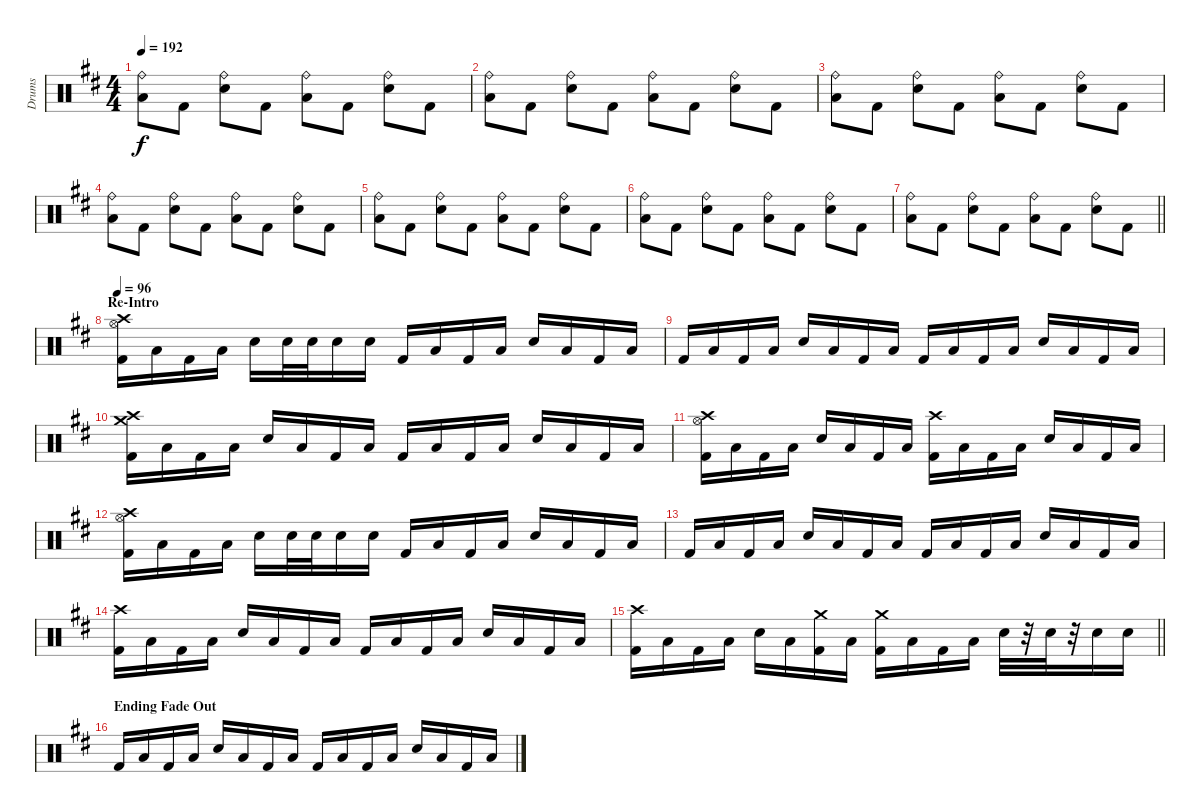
\track ("Drums" "Drums") {instrument percussion}
\staff {score}
\articulation defaults
\ts (4 4)
\tempo 192
\clef neutral
\ks d
("Ride (bell)" "Low Tom (hit)").8{dy f} "Kick (hit) 2".8 ("Ride (bell)" "Snare (hit) 2").8 "Kick (hit) 2".8 ("Ride (bell)" "Low Tom (hit)").8 "Kick (hit) 2".8 ("Ride (bell)" "Snare (hit) 2").8 "Kick (hit) 2".8 |
("Ride (bell)" "Low Tom (hit)").8 "Kick (hit) 2".8 ("Ride (bell)" "Snare (hit) 2").8 "Kick (hit) 2".8 ("Ride (bell)" "Low Tom (hit)").8 "Kick (hit) 2".8 ("Ride (bell)" "Snare (hit) 2").8 "Kick (hit) 2".8 |
("Ride (bell)" "Low Tom (hit)").8 "Kick (hit) 2".8 ("Ride (bell)" "Snare (hit) 2").8 "Kick (hit) 2".8 ("Ride (bell)" "Low Tom (hit)").8 "Kick (hit) 2".8 ("Ride (bell)" "Snare (hit) 2").8 "Kick (hit) 2".8 |
("Ride (bell)" "Low Tom (hit)").8 "Kick (hit) 2".8 ("Ride (bell)" "Snare (hit) 2").8 "Kick (hit) 2".8 ("Ride (bell)" "Low Tom (hit)").8 "Kick (hit) 2".8 ("Ride (bell)" "Snare (hit) 2").8 "Kick (hit) 2".8 |
("Ride (bell)" "Low Tom (hit)").8 "Kick (hit) 2".8 ("Ride (bell)" "Snare (hit) 2").8 "Kick (hit) 2".8 ("Ride (bell)" "Low Tom (hit)").8 "Kick (hit) 2".8 ("Ride (bell)" "Snare (hit) 2").8 "Kick (hit) 2".8 |
("Ride (bell)" "Low Tom (hit)").8 "Kick (hit) 2".8 ("Ride (bell)" "Snare (hit) 2").8 "Kick (hit) 2".8 ("Ride (bell)" "Low Tom (hit)").8 "Kick (hit) 2".8 ("Ride (bell)" "Snare (hit) 2").8 "Kick (hit) 2".8 |
\barLineRight lightlight
("Ride (bell)" "Low Tom (hit)").8 "Kick (hit) 2".8 ("Ride (bell)" "Snare (hit) 2").8 "Kick (hit) 2".8 ("Ride (bell)" "Low Tom (hit)").8 "Kick (hit) 2".8 ("Ride (bell)" "Snare (hit) 2").8 "Kick (hit) 2".8 |
\section ("" "Re-Intro")
\tempo 96
("Crash high (hit)" "Hi-Hat (open)" "Kick (hit) 2").16 "Low Tom (hit)".16 "Kick (hit) 2".16 "Low Tom (hit)".16 "Snare (hit) 2".16 "Electric Snare (hit)".32 "Electric Snare (hit)".32 "Electric Snare (hit)".16 "Snare (hit) 2".16 "Kick (hit) 2".16 "Low Tom (hit)".16 "Kick (hit) 2".16 "Low Tom (hit)".16 "Snare (hit) 2".16 "Low Tom (hit)".16 "Kick (hit) 2".16 "Low Tom (hit)".16 |
"Kick (hit) 2".16 "Low Tom (hit)".16 "Kick (hit) 2".16 "Low Tom (hit)".16 "Snare (hit) 2".16 "Low Tom (hit)".16 "Kick (hit) 2".16 "Low Tom (hit)".16 "Kick (hit) 2".16 "Low Tom (hit)".16 "Kick (hit) 2".16 "Low Tom (hit)".16 "Snare (hit) 2".16 "Low Tom (hit)".16 "Kick (hit) 2".16 "Low Tom (hit)".16 |
("Crash high (hit)" "Crash medium (hit)" "Kick (hit) 2").16 "Low Tom (hit)".16 "Kick (hit) 2".16 "Low Tom (hit)".16 "Snare (hit) 2".16 "Low Tom (hit)".16 "Kick (hit) 2".16 "Low Tom (hit)".16 "Kick (hit) 2".16 "Low Tom (hit)".16 "Kick (hit) 2".16 "Low Tom (hit)".16 "Snare (hit) 2".16 "Low Tom (hit)".16 "Kick (hit) 2".16 "Low Tom (hit)".16 |
("Crash high (hit)" "Hi-Hat (open)" "Kick (hit) 2").16 "Low Tom (hit)".16 "Kick (hit) 2".16 "Low Tom (hit)".16 "Snare (hit) 2".16 "Low Tom (hit)".16 "Kick (hit) 2".16 "Low Tom (hit)".16 ("Crash high (hit)" "Kick (hit) 2").16 "Low Tom (hit)".16 "Kick (hit) 2".16 "Low Tom (hit)".16 "Snare (hit) 2".16 "Low Tom (hit)".16 "Kick (hit) 2".16 "Low Tom (hit)".16 |
("Crash high (hit)" "Hi-Hat (open)" "Kick (hit) 2").16 "Low Tom (hit)".16 "Kick (hit) 2".16 "Low Tom (hit)".16 "Snare (hit) 2".16 "Electric Snare (hit)".32 "Electric Snare (hit)".32 "Electric Snare (hit)".16 "Snare (hit) 2".16 "Kick (hit) 2".16 "Low Tom (hit)".16 "Kick (hit) 2".16 "Low Tom (hit)".16 "Snare (hit) 2".16 "Low Tom (hit)".16 "Kick (hit) 2".16 "Low Tom (hit)".16 |
"Kick (hit) 2".16 "Low Tom (hit)".16 "Kick (hit) 2".16 "Low Tom (hit)".16 "Snare (hit) 2".16 "Low Tom (hit)".16 "Kick (hit) 2".16 "Low Tom (hit)".16 "Kick (hit) 2".16 "Low Tom (hit)".16 "Kick (hit) 2".16 "Low Tom (hit)".16 "Snare (hit) 2".16 "Low Tom (hit)".16 "Kick (hit) 2".16 "Low Tom (hit)".16 |
("Crash high (hit)" "Kick (hit) 2").16 "Low Tom (hit)".16 "Kick (hit) 2".16 "Low Tom (hit)".16 "Snare (hit) 2".16 "Low Tom (hit)".16 "Kick (hit) 2".16 "Low Tom (hit)".16 "Kick (hit) 2".16 "Low Tom (hit)".16 "Kick (hit) 2".16 "Low Tom (hit)".16 "Snare (hit) 2".16 "Low Tom (hit)".16 "Kick (hit) 2".16 "Low Tom (hit)".16 |
\barLineRight lightlight
("Crash high (hit)" "Kick (hit) 2").16 "Low Tom (hit)".16 "Kick (hit) 2".16 "Low Tom (hit)".16 "Snare (hit) 2".16 "Low Tom (hit)".16 ("Crash medium (hit)" "Kick (hit) 2").16 "Low Tom (hit)".16 ("Crash medium (hit)" "Kick (hit) 2").16 "Low Tom (hit)".16 "Kick (hit) 2".16 "Low Tom (hit)".16 "Snare (hit) 2".32 r.32 "Snare (hit) 2".32 r.32 "Snare (hit) 2".16 "Snare (hit) 2".16 |
\section ("" "Ending Fade Out")
"Kick (hit) 2".16 "Low Floor Tom (hit)".16 "Kick (hit) 2".16 "Low Floor Tom (hit)".16 "Snare (hit) 2".16 "Low Floor Tom (hit)".16 "Kick (hit) 2".16 "Low Floor Tom (hit)".16 "Kick (hit) 2".16 "Low Floor Tom (hit)".16 "Kick (hit) 2".16 "Low Floor Tom (hit)".16 "Snare (hit) 2".16 "Low Floor Tom (hit)".16 "Kick (hit) 2".16 "Low Floor Tom (hit)".16
